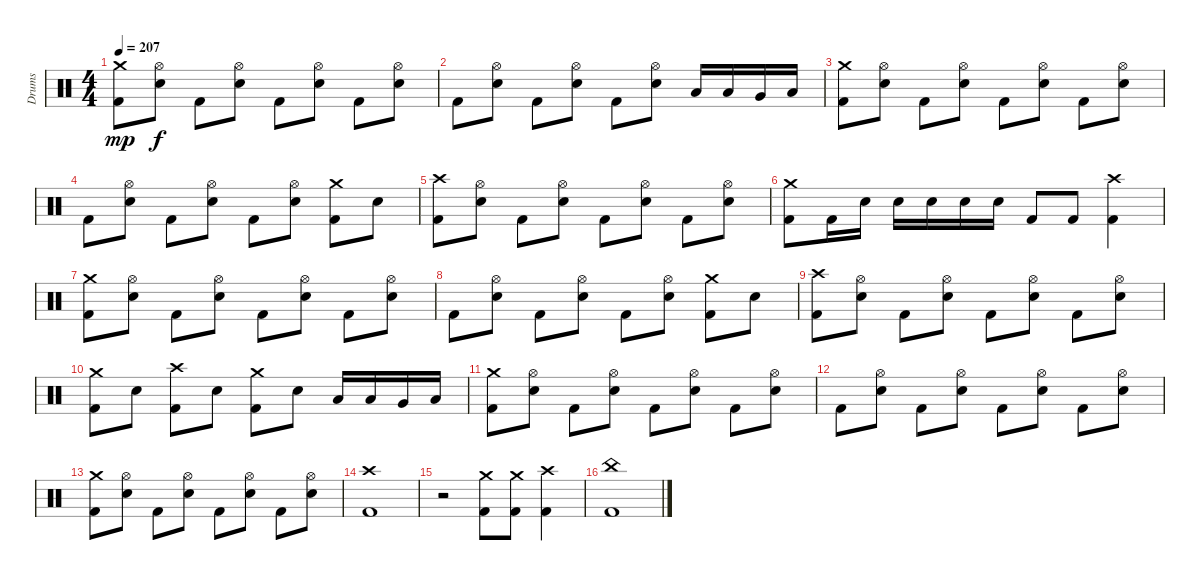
\track ("Drums" "Drums") {instrument percussion}
\staff {score}
\articulation defaults
\ts (4 4)
\tempo 207
\clef neutral
\ks c
("Crash medium (hit)" "Kick (hit) 2").8{dy mp} ("Hi-Hat (open)" "Snare (hit) 2").8{dy f} "Kick (hit) 2".8 ("Hi-Hat (open)" "Snare (hit) 2").8 "Kick (hit) 2".8 ("Hi-Hat (open)" "Snare (hit) 2").8 "Kick (hit) 2".8 ("Hi-Hat (open)" "Snare (hit) 2").8 |
"Kick (hit) 2".8 ("Hi-Hat (open)" "Snare (hit) 2").8 "Kick (hit) 2".8 ("Hi-Hat (open)" "Snare (hit) 2").8 "Kick (hit) 2".8 ("Hi-Hat (open)" "Snare (hit) 2").8 "Low Tom (hit)".16 "Low Tom (hit)".16 "Very Low Tom (hit)".16 "Low Floor Tom (hit)".16 |
("Crash medium (hit)" "Kick (hit) 2").8 ("Hi-Hat (open)" "Snare (hit) 2").8 "Kick (hit) 2".8 ("Hi-Hat (open)" "Snare (hit) 2").8 "Kick (hit) 2".8 ("Hi-Hat (open)" "Snare (hit) 2").8 "Kick (hit) 2".8 ("Hi-Hat (open)" "Snare (hit) 2").8 |
"Kick (hit) 2".8 ("Hi-Hat (open)" "Snare (hit) 2").8 "Kick (hit) 2".8 ("Hi-Hat (open)" "Snare (hit) 2").8 "Kick (hit) 2".8 ("Hi-Hat (open)" "Snare (hit) 2").8 ("Crash medium (hit)" "Kick (hit) 2").8 "Snare (hit) 2".8 |
("Crash high (hit)" "Kick (hit) 2").8 ("Hi-Hat (open)" "Snare (hit) 2").8 "Kick (hit) 2".8 ("Hi-Hat (open)" "Snare (hit) 2").8 "Kick (hit) 2".8 ("Hi-Hat (open)" "Snare (hit) 2").8 "Kick (hit) 2".8 ("Hi-Hat (open)" "Snare (hit) 2").8 |
("Crash medium (hit)" "Kick (hit) 2").8 "Kick (hit) 2".16 "Snare (hit) 2".16 "Snare (hit) 2".16 "Snare (hit) 2".16 "Snare (hit) 2".16 "Snare (hit) 2".16 "Kick (hit) 2".8 "Kick (hit) 2".8 ("Crash high (hit)" "Kick (hit) 2").4 |
("Crash medium (hit)" "Kick (hit) 2").8 ("Hi-Hat (open)" "Snare (hit) 2").8 "Kick (hit) 2".8 ("Hi-Hat (open)" "Snare (hit) 2").8 "Kick (hit) 2".8 ("Hi-Hat (open)" "Snare (hit) 2").8 "Kick (hit) 2".8 ("Hi-Hat (open)" "Snare (hit) 2").8 |
"Kick (hit) 2".8 ("Hi-Hat (open)" "Snare (hit) 2").8 "Kick (hit) 2".8 ("Hi-Hat (open)" "Snare (hit) 2").8 "Kick (hit) 2".8 ("Hi-Hat (open)" "Snare (hit) 2").8 ("Crash medium (hit)" "Kick (hit) 2").8 "Snare (hit) 2".8 |
("Crash high (hit)" "Kick (hit) 2").8 ("Hi-Hat (open)" "Snare (hit) 2").8 "Kick (hit) 2".8 ("Hi-Hat (open)" "Snare (hit) 2").8 "Kick (hit) 2".8 ("Hi-Hat (open)" "Snare (hit) 2").8 "Kick (hit) 2".8 ("Hi-Hat (open)" "Snare (hit) 2").8 |
("Crash medium (hit)" "Kick (hit) 2").8 "Snare (hit) 2".8 ("Crash high (hit)" "Kick (hit) 2").8 "Snare (hit) 2".8 ("Crash medium (hit)" "Kick (hit) 2").8 "Snare (hit) 2".8 "Low Tom (hit)".16 "Low Tom (hit)".16 "Very Low Tom (hit)".16 "Low Floor Tom (hit)".16 |
("Crash medium (hit)" "Kick (hit) 2").8 ("Hi-Hat (open)" "Snare (hit) 2").8 "Kick (hit) 2".8 ("Hi-Hat (open)" "Snare (hit) 2").8 "Kick (hit) 2".8 ("Hi-Hat (open)" "Snare (hit) 2").8 "Kick (hit) 2".8 ("Hi-Hat (open)" "Snare (hit) 2").8 |
"Kick (hit) 2".8 ("Hi-Hat (open)" "Snare (hit) 2").8 "Kick (hit) 2".8 ("Hi-Hat (open)" "Snare (hit) 2").8 "Kick (hit) 2".8 ("Hi-Hat (open)" "Snare (hit) 2").8 "Kick (hit) 2".8 ("Hi-Hat (open)" "Snare (hit) 2").8 |
("Crash medium (hit)" "Kick (hit) 2").8 ("Hi-Hat (open)" "Snare (hit) 2").8 "Kick (hit) 2".8 ("Hi-Hat (open)" "Snare (hit) 2").8 "Kick (hit) 2".8 ("Hi-Hat (open)" "Snare (hit) 2").8 "Kick (hit) 2".8 ("Hi-Hat (open)" "Snare (hit) 2").8 |
("Crash high (hit)" "Kick (hit) 2").1 |
r.2 ("Crash medium (hit)" "Kick (hit) 2").8 ("Crash medium (hit)" "Kick (hit) 2").8 ("Crash high (hit)" "Kick (hit) 2").4 |
("China (hit)" "Kick (hit) 2").1
